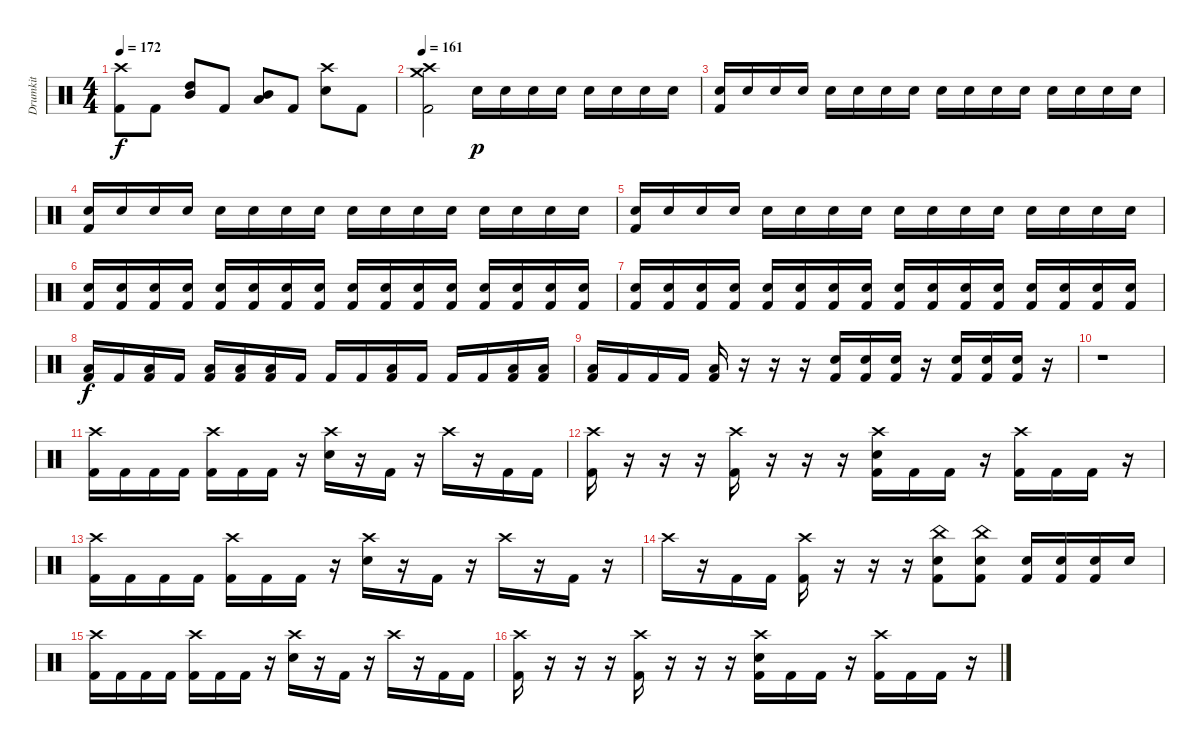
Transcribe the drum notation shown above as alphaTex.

\track ("Drumkit" "Drumkit") {instrument percussion}
\staff {score}
\articulation defaults
\ts (4 4)
\tempo 172
\clef neutral
\ks c
("Crash high (hit)" "Kick (hit) 2").8{dy f} "Kick (hit) 2".8 ("High Tom (hit)" "Mid Tom (hit)").8 "Kick (hit) 2".8 ("Mid Tom (hit)" "Low Tom (hit)").8 "Kick (hit) 2".8 ("Crash high (hit)" "Snare (hit) 2").8 "Kick (hit) 2".8 |
\tempo 161
("Crash high (hit)" "Crash medium (hit)" "Kick (hit) 2").2 "Snare (hit) 2".16{dy p} "Snare (hit) 2".16 "Snare (hit) 2".16 "Snare (hit) 2".16 "Snare (hit) 2".16 "Snare (hit) 2".16 "Snare (hit) 2".16 "Snare (hit) 2".16 |
("Snare (hit) 2" "Kick (hit) 2").16 "Snare (hit) 2".16 "Snare (hit) 2".16 "Snare (hit) 2".16 "Snare (hit) 2".16 "Snare (hit) 2".16 "Snare (hit) 2".16 "Snare (hit) 2".16 "Snare (hit) 2".16 "Snare (hit) 2".16 "Snare (hit) 2".16 "Snare (hit) 2".16 "Snare (hit) 2".16 "Snare (hit) 2".16 "Snare (hit) 2".16 "Snare (hit) 2".16 |
("Snare (hit) 2" "Kick (hit) 2").16 "Snare (hit) 2".16 "Snare (hit) 2".16 "Snare (hit) 2".16 "Snare (hit) 2".16 "Snare (hit) 2".16 "Snare (hit) 2".16 "Snare (hit) 2".16 "Snare (hit) 2".16 "Snare (hit) 2".16 "Snare (hit) 2".16 "Snare (hit) 2".16 "Snare (hit) 2".16 "Snare (hit) 2".16 "Snare (hit) 2".16 "Snare (hit) 2".16 |
("Snare (hit) 2" "Kick (hit) 2").16 "Snare (hit) 2".16 "Snare (hit) 2".16 "Snare (hit) 2".16 "Snare (hit) 2".16 "Snare (hit) 2".16 "Snare (hit) 2".16 "Snare (hit) 2".16 "Snare (hit) 2".16 "Snare (hit) 2".16 "Snare (hit) 2".16 "Snare (hit) 2".16 "Snare (hit) 2".16 "Snare (hit) 2".16 "Snare (hit) 2".16 "Snare (hit) 2".16 |
("Snare (hit) 2" "Kick (hit) 2").16 ("Snare (hit) 2" "Kick (hit) 2").16 ("Snare (hit) 2" "Kick (hit) 2").16 ("Snare (hit) 2" "Kick (hit) 2").16 ("Snare (hit) 2" "Kick (hit) 2").16 ("Snare (hit) 2" "Kick (hit) 2").16 ("Snare (hit) 2" "Kick (hit) 2").16 ("Snare (hit) 2" "Kick (hit) 2").16 ("Snare (hit) 2" "Kick (hit) 2").16 ("Snare (hit) 2" "Kick (hit) 2").16 ("Snare (hit) 2" "Kick (hit) 2").16 ("Snare (hit) 2" "Kick (hit) 2").16 ("Snare (hit) 2" "Kick (hit) 2").16 ("Snare (hit) 2" "Kick (hit) 2").16 ("Snare (hit) 2" "Kick (hit) 2").16 ("Snare (hit) 2" "Kick (hit) 2").16 |
("Snare (hit) 2" "Kick (hit) 2").16 ("Snare (hit) 2" "Kick (hit) 2").16 ("Snare (hit) 2" "Kick (hit) 2").16 ("Snare (hit) 2" "Kick (hit) 2").16 ("Snare (hit) 2" "Kick (hit) 2").16 ("Snare (hit) 2" "Kick (hit) 2").16 ("Snare (hit) 2" "Kick (hit) 2").16 ("Snare (hit) 2" "Kick (hit) 2").16 ("Snare (hit) 2" "Kick (hit) 2").16 ("Snare (hit) 2" "Kick (hit) 2").16 ("Snare (hit) 2" "Kick (hit) 2").16 ("Snare (hit) 2" "Kick (hit) 2").16 ("Snare (hit) 2" "Kick (hit) 2").16 ("Snare (hit) 2" "Kick (hit) 2").16 ("Snare (hit) 2" "Kick (hit) 2").16 ("Snare (hit) 2" "Kick (hit) 2").16 |
("Low Tom (hit)" "Kick (hit) 2").16{dy f} "Kick (hit) 2".16 ("Low Tom (hit)" "Kick (hit) 2").16 "Kick (hit) 2".16 ("Low Tom (hit)" "Kick (hit) 2").16 ("Low Tom (hit)" "Kick (hit) 2").16 ("Low Tom (hit)" "Kick (hit) 2").16 "Kick (hit) 2".16 "Kick (hit) 2".16 "Kick (hit) 2".16 ("Low Tom (hit)" "Kick (hit) 2").16 "Kick (hit) 2".16 "Kick (hit) 2".16 "Kick (hit) 2".16 ("Low Tom (hit)" "Kick (hit) 2").16 ("Low Tom (hit)" "Kick (hit) 2").16 |
("Low Tom (hit)" "Kick (hit) 2").16 "Kick (hit) 2".16 "Kick (hit) 2".16 "Kick (hit) 2".16 ("Low Tom (hit)" "Kick (hit) 2").16 r.16 r.16 r.16 ("Snare (hit) 2" "Kick (hit) 2").16 ("Snare (hit) 2" "Kick (hit) 2").16 ("Snare (hit) 2" "Kick (hit) 2").16 r.16 ("Snare (hit) 2" "Kick (hit) 2").16 ("Snare (hit) 2" "Kick (hit) 2").16 ("Snare (hit) 2" "Kick (hit) 2").16 r.16 |
r.1 |
("Crash high (hit)" "Kick (hit) 2").16 "Kick (hit) 2".16 "Kick (hit) 2".16 "Kick (hit) 2".16 ("Crash high (hit)" "Kick (hit) 2").16 "Kick (hit) 2".16 "Kick (hit) 2".16 r.16 ("Crash high (hit)" "Snare (hit) 2").16 r.16 "Kick (hit) 2".16 r.16 "Crash high (hit)".16 r.16 "Kick (hit) 2".16 "Kick (hit) 2".16 |
("Crash high (hit)" "Kick (hit) 2").16 r.16 r.16 r.16 ("Crash high (hit)" "Kick (hit) 2").16 r.16 r.16 r.16 ("Crash high (hit)" "Snare (hit) 2" "Kick (hit) 2").16 "Kick (hit) 2".16 "Kick (hit) 2".16 r.16 ("Crash high (hit)" "Kick (hit) 2").16 "Kick (hit) 2".16 "Kick (hit) 2".16 r.16 |
("Crash high (hit)" "Kick (hit) 2").16 "Kick (hit) 2".16 "Kick (hit) 2".16 "Kick (hit) 2".16 ("Crash high (hit)" "Kick (hit) 2").16 "Kick (hit) 2".16 "Kick (hit) 2".16 r.16 ("Crash high (hit)" "Snare (hit) 2").16 r.16 "Kick (hit) 2".16 r.16 "Crash high (hit)".16 r.16 "Kick (hit) 2".16 r.16 |
"Crash high (hit)".16 r.16 "Kick (hit) 2".16 "Kick (hit) 2".16 ("Crash high (hit)" "Kick (hit) 2").16 r.16 r.16 r.16 ("China (hit)" "Snare (hit) 2" "Kick (hit) 2").8 ("China (hit)" "Snare (hit) 2" "Kick (hit) 2").8 ("Snare (hit) 2" "Kick (hit) 2").16 ("Snare (hit) 2" "Kick (hit) 2").16 ("Snare (hit) 2" "Kick (hit) 2").16 "Snare (hit) 2".16 |
("Crash high (hit)" "Kick (hit) 2").16 "Kick (hit) 2".16 "Kick (hit) 2".16 "Kick (hit) 2".16 ("Crash high (hit)" "Kick (hit) 2").16 "Kick (hit) 2".16 "Kick (hit) 2".16 r.16 ("Crash high (hit)" "Snare (hit) 2").16 r.16 "Kick (hit) 2".16 r.16 "Crash high (hit)".16 r.16 "Kick (hit) 2".16 "Kick (hit) 2".16 |
("Crash high (hit)" "Kick (hit) 2").16 r.16 r.16 r.16 ("Crash high (hit)" "Kick (hit) 2").16 r.16 r.16 r.16 ("Crash high (hit)" "Snare (hit) 2" "Kick (hit) 2").16 "Kick (hit) 2".16 "Kick (hit) 2".16 r.16 ("Crash high (hit)" "Kick (hit) 2").16 "Kick (hit) 2".16 "Kick (hit) 2".16 r.16
